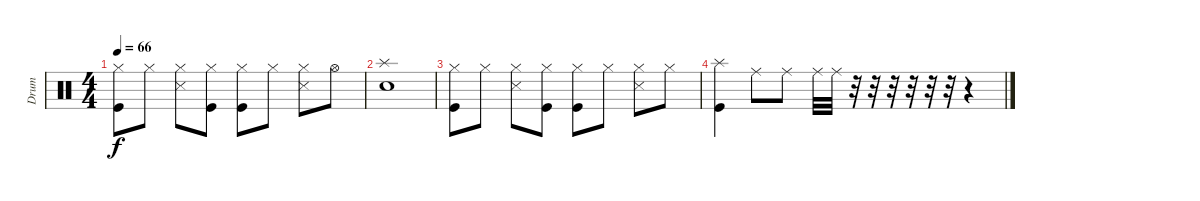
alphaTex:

\track ("Drum" "Drum") {instrument percussion}
\staff {score}
\articulation defaults
\ts (4 4)
\tempo 66
\clef neutral
\ks c
("Hi-Hat (closed)" "Kick (hit)").8{dy f} "Hi-Hat (closed)".8 ("Hi-Hat (closed)" "Snare (side stick) 3").8 ("Hi-Hat (closed)" "Kick (hit)").8 ("Hi-Hat (closed)" "Kick (hit)").8 "Hi-Hat (closed)".8 ("Hi-Hat (closed)" "Snare (side stick) 3").8 "Hi-Hat (open)".8 |
("Splash (hit)" "Snare (hit) 2").1 |
("Hi-Hat (closed)" "Kick (hit)").8 "Hi-Hat (closed)".8 ("Hi-Hat (closed)" "Snare (side stick) 3").8 ("Hi-Hat (closed)" "Kick (hit)").8 ("Hi-Hat (closed)" "Kick (hit)").8 "Hi-Hat (closed)".8 ("Hi-Hat (closed)" "Snare (side stick) 3").8 "Hi-Hat (closed)".8 |
("Splash (hit)" "Kick (hit)").4 "Ride (middle)".8 "Ride (middle)".8 "Ride (middle)".32 "Ride (middle)".32 r.32 r.32 r.32 r.32 r.32 r.32 r.4
